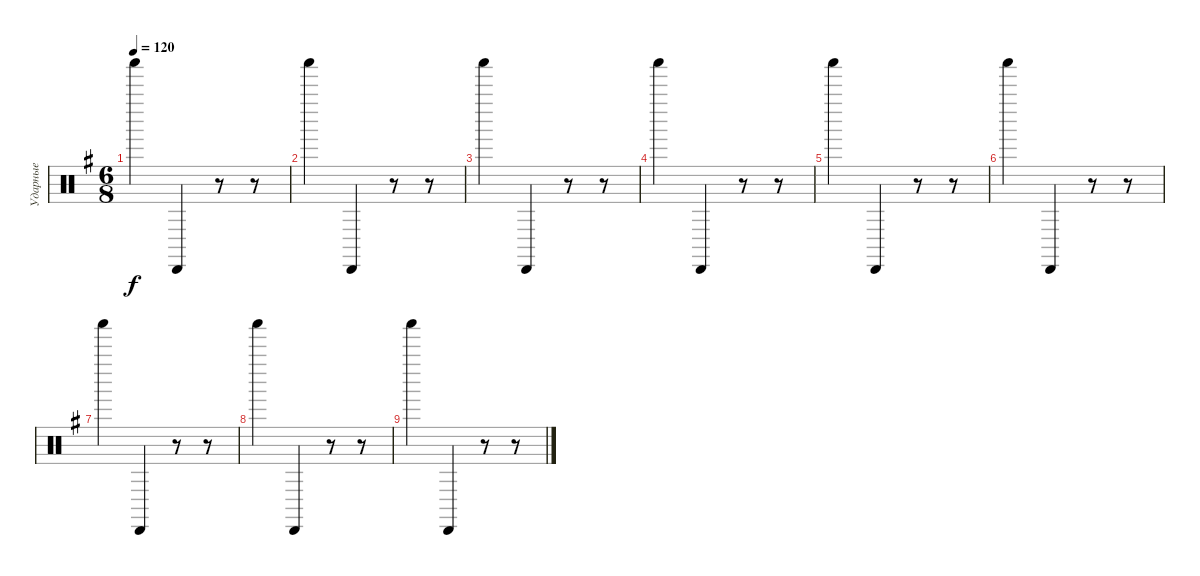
\track ("Ударные" "Ударные") {instrument percussion}
\staff {score}
\articulation defaults
\ts (6 8)
\tempo 120
\clef neutral
\ks eminor "Shaker (hit)".4{dy f} "Cabasa (hit)".4
r.8 r.8 |
"Shaker (hit)".4 "Cabasa (hit)".4 r.8 r.8 |
"Shaker (hit)".4 "Cabasa (hit)".4 r.8 r.8 |
"Shaker (hit)".4 "Cabasa (hit)".4 r.8 r.8 |
"Shaker (hit)".4 "Cabasa (hit)".4 r.8 r.8 |
"Shaker (hit)".4 "Cabasa (hit)".4 r.8 r.8 |
"Shaker (hit)".4 "Cabasa (hit)".4 r.8 r.8 |
"Shaker (hit)".4 "Cabasa (hit)".4 r.8 r.8 |
"Shaker (hit)".4 "Cabasa (hit)".4 r.8 r.8
